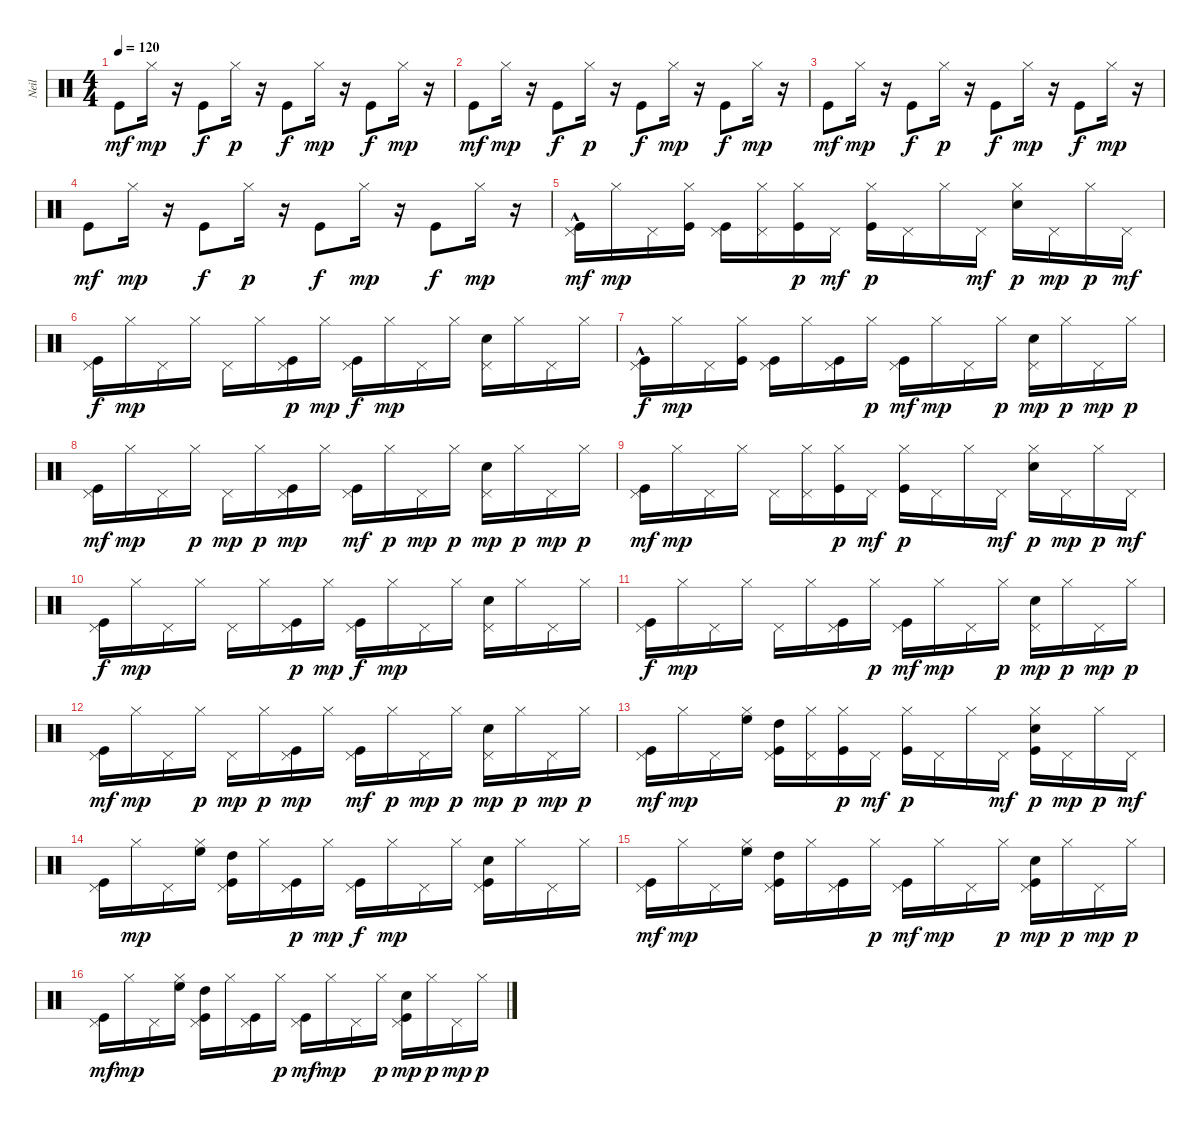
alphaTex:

\track ("Neil" "Neil") {instrument percussion}
\staff {score}
\articulation defaults
\ts (4 4)
\tempo 120
\clef neutral
\ks c "Kick (hit)".8{dy mf} "Hi-Hat (closed)".16{dy mp}
r.16 "Kick (hit)".8{dy f} "Hi-Hat (closed)".16{dy p} r.16 "Kick (hit)".8{dy f} "Hi-Hat (closed)".16{dy mp} r.16 "Kick (hit)".8{dy f} "Hi-Hat (closed)".16{dy mp} r.16 |
"Kick (hit)".8{dy mf} "Hi-Hat (closed)".16{dy mp} r.16 "Kick (hit)".8{dy f} "Hi-Hat (closed)".16{dy p} r.16 "Kick (hit)".8{dy f} "Hi-Hat (closed)".16{dy mp} r.16 "Kick (hit)".8{dy f} "Hi-Hat (closed)".16{dy mp} r.16 |
"Kick (hit)".8{dy mf} "Hi-Hat (closed)".16{dy mp} r.16 "Kick (hit)".8{dy f} "Hi-Hat (closed)".16{dy p} r.16 "Kick (hit)".8{dy f} "Hi-Hat (closed)".16{dy mp} r.16 "Kick (hit)".8{dy f} "Hi-Hat (closed)".16{dy mp} r.16 |
"Kick (hit)".8{dy mf} "Hi-Hat (closed)".16{dy mp} r.16 "Kick (hit)".8{dy f} "Hi-Hat (closed)".16{dy p} r.16 "Kick (hit)".8{dy f} "Hi-Hat (closed)".16{dy mp volume 9} r.16 "Kick (hit)".8{dy f} "Hi-Hat (closed)".16{dy mp volume 9} r.16 |
("Pedal Hi-Hat (hit)" "Kick (hit)"{hac}).16{dy mf} "Hi-Hat (closed)".16{dy mp} "Pedal Hi-Hat (hit)".16 ("Kick (hit)" "Hi-Hat (closed)").16{volume 9} ("Kick (hit)" "Pedal Hi-Hat (hit)").16{volume 10} ("Hi-Hat (closed)" "Pedal Hi-Hat (hit)").16{volume 10} ("Kick (hit)" "Hi-Hat (closed)").16{dy p} "Pedal Hi-Hat (hit)".16{dy mf volume 10} ("Kick (hit)" "Hi-Hat (closed)").16{dy p volume 10} "Pedal Hi-Hat (hit)".16 "Hi-Hat (closed)".16 "Pedal Hi-Hat (hit)".16{dy mf} ("Electric Snare (hit)" "Hi-Hat (closed)").16{dy p} "Pedal Hi-Hat (hit)".16{dy mp} "Hi-Hat (closed)".16{dy p} "Pedal Hi-Hat (hit)".16{dy mf volume 10} |
("Kick (hit)" "Pedal Hi-Hat (hit)").16{dy f volume 10} "Hi-Hat (closed)".16{dy mp} "Pedal Hi-Hat (hit)".16 "Hi-Hat (closed)".16 "Pedal Hi-Hat (hit)".16 "Hi-Hat (closed)".16 ("Kick (hit)" "Pedal Hi-Hat (hit)").16{dy p volume 10} "Hi-Hat (closed)".16{dy mp} ("Kick (hit)" "Pedal Hi-Hat (hit)").16{dy f} "Hi-Hat (closed)".16{dy mp volume 10} "Pedal Hi-Hat (hit)".16 "Hi-Hat (closed)".16 ("Electric Snare (hit)" "Pedal Hi-Hat (hit)").16 "Hi-Hat (closed)".16 "Pedal Hi-Hat (hit)".16 "Hi-Hat (closed)".16 |
("Pedal Hi-Hat (hit)" "Kick (hit)"{hac}).16{dy f} "Hi-Hat (closed)".16{dy mp} "Pedal Hi-Hat (hit)".16 ("Kick (hit)" "Hi-Hat (closed)").16 ("Kick (hit)" "Pedal Hi-Hat (hit)").16 "Hi-Hat (closed)".16 ("Kick (hit)" "Pedal Hi-Hat (hit)").16 "Hi-Hat (closed)".16{dy p} ("Kick (hit)" "Pedal Hi-Hat (hit)").16{dy mf} "Hi-Hat (closed)".16{dy mp} "Pedal Hi-Hat (hit)".16 "Hi-Hat (closed)".16{dy p} ("Electric Snare (hit)" "Pedal Hi-Hat (hit)").16{dy mp} "Hi-Hat (closed)".16{dy p volume 10} "Pedal Hi-Hat (hit)".16{dy mp} "Hi-Hat (closed)".16{dy p} |
("Kick (hit)" "Pedal Hi-Hat (hit)").16{dy mf} "Hi-Hat (closed)".16{dy mp} "Pedal Hi-Hat (hit)".16 "Hi-Hat (closed)".16{dy p} "Pedal Hi-Hat (hit)".16{dy mp volume 10} "Hi-Hat (closed)".16{dy p} ("Kick (hit)" "Pedal Hi-Hat (hit)").16{dy mp} "Hi-Hat (closed)".16 ("Kick (hit)" "Pedal Hi-Hat (hit)").16{dy mf} "Hi-Hat (closed)".16{dy p} "Pedal Hi-Hat (hit)".16{dy mp} "Hi-Hat (closed)".16{dy p} ("Electric Snare (hit)" "Pedal Hi-Hat (hit)").16{dy mp} "Hi-Hat (closed)".16{dy p} "Pedal Hi-Hat (hit)".16{dy mp} "Hi-Hat (closed)".16{dy p} |
("Kick (hit)" "Pedal Hi-Hat (hit)").16{dy mf} "Hi-Hat (closed)".16{dy mp} "Pedal Hi-Hat (hit)".16 "Hi-Hat (closed)".16 "Pedal Hi-Hat (hit)".16 ("Hi-Hat (closed)" "Pedal Hi-Hat (hit)").16 ("Kick (hit)" "Hi-Hat (closed)").16{dy p} "Pedal Hi-Hat (hit)".16{dy mf} ("Kick (hit)" "Hi-Hat (closed)").16{dy p} "Pedal Hi-Hat (hit)".16 "Hi-Hat (closed)".16 "Pedal Hi-Hat (hit)".16{dy mf} ("Electric Snare (hit)" "Hi-Hat (closed)").16{dy p} "Pedal Hi-Hat (hit)".16{dy mp} "Hi-Hat (closed)".16{dy p} "Pedal Hi-Hat (hit)".16{dy mf} |
("Kick (hit)" "Pedal Hi-Hat (hit)").16{dy f} "Hi-Hat (closed)".16{dy mp} "Pedal Hi-Hat (hit)".16 "Hi-Hat (closed)".16 "Pedal Hi-Hat (hit)".16 "Hi-Hat (closed)".16 ("Kick (hit)" "Pedal Hi-Hat (hit)").16{dy p} "Hi-Hat (closed)".16{dy mp} ("Kick (hit)" "Pedal Hi-Hat (hit)").16{dy f} "Hi-Hat (closed)".16{dy mp} "Pedal Hi-Hat (hit)".16 "Hi-Hat (closed)".16 ("Electric Snare (hit)" "Pedal Hi-Hat (hit)").16 "Hi-Hat (closed)".16 "Pedal Hi-Hat (hit)".16 "Hi-Hat (closed)".16 |
("Kick (hit)" "Pedal Hi-Hat (hit)").16{dy f} "Hi-Hat (closed)".16{dy mp} "Pedal Hi-Hat (hit)".16 "Hi-Hat (closed)".16 "Pedal Hi-Hat (hit)".16 "Hi-Hat (closed)".16 ("Kick (hit)" "Pedal Hi-Hat (hit)").16 "Hi-Hat (closed)".16{dy p} ("Kick (hit)" "Pedal Hi-Hat (hit)").16{dy mf} "Hi-Hat (closed)".16{dy mp} "Pedal Hi-Hat (hit)".16 "Hi-Hat (closed)".16{dy p} ("Electric Snare (hit)" "Pedal Hi-Hat (hit)").16{dy mp} "Hi-Hat (closed)".16{dy p} "Pedal Hi-Hat (hit)".16{dy mp} "Hi-Hat (closed)".16{dy p} |
("Kick (hit)" "Pedal Hi-Hat (hit)").16{dy mf} "Hi-Hat (closed)".16{dy mp} "Pedal Hi-Hat (hit)".16 "Hi-Hat (closed)".16{dy p} "Pedal Hi-Hat (hit)".16{dy mp} "Hi-Hat (closed)".16{dy p} ("Kick (hit)" "Pedal Hi-Hat (hit)").16{dy mp} "Hi-Hat (closed)".16 ("Kick (hit)" "Pedal Hi-Hat (hit)").16{dy mf} "Hi-Hat (closed)".16{dy p volume 10} "Pedal Hi-Hat (hit)".16{dy mp volume 10} "Hi-Hat (closed)".16{dy p} ("Electric Snare (hit)" "Pedal Hi-Hat (hit)").16{dy mp volume 10} "Hi-Hat (closed)".16{dy p volume 11} "Pedal Hi-Hat (hit)".16{dy mp volume 11} "Hi-Hat (closed)".16{dy p volume 11} |
("Kick (hit)" "Pedal Hi-Hat (hit)").16{dy mf volume 11} "Hi-Hat (closed)".16{dy mp volume 11} "Pedal Hi-Hat (hit)".16 ("High Floor Tom (hit)" "Hi-Hat (closed)").16 ("Kick (hit)" "High Tom (hit)" "Pedal Hi-Hat (hit)").16 ("Hi-Hat (closed)" "Pedal Hi-Hat (hit)").16 ("Kick (hit)" "Hi-Hat (closed)").16{dy p} "Pedal Hi-Hat (hit)".16{dy mf volume 12} ("Kick (hit)" "Hi-Hat (closed)").16{dy p volume 12} "Pedal Hi-Hat (hit)".16{volume 12} "Hi-Hat (closed)".16 "Pedal Hi-Hat (hit)".16{dy mf} ("Electric Snare (hit)" "Kick (hit)" "Hi-Hat (closed)").16{dy p} "Pedal Hi-Hat (hit)".16{dy mp} "Hi-Hat (closed)".16{dy p} "Pedal Hi-Hat (hit)".16{dy mf} |
("Kick (hit)" "Pedal Hi-Hat (hit)").16 "Hi-Hat (closed)".16{dy mp} "Pedal Hi-Hat (hit)".16 ("High Floor Tom (hit)" "Hi-Hat (closed)").16 ("Kick (hit)" "High Tom (hit)" "Pedal Hi-Hat (hit)").16 "Hi-Hat (closed)".16 ("Kick (hit)" "Pedal Hi-Hat (hit)").16{dy p} "Hi-Hat (closed)".16{dy mp} ("Kick (hit)" "Pedal Hi-Hat (hit)").16{dy f} "Hi-Hat (closed)".16{dy mp} "Pedal Hi-Hat (hit)".16{volume 12} "Hi-Hat (closed)".16 ("Electric Snare (hit)" "Kick (hit)" "Pedal Hi-Hat (hit)").16 "Hi-Hat (closed)".16 "Pedal Hi-Hat (hit)".16 "Hi-Hat (closed)".16 |
("Kick (hit)" "Pedal Hi-Hat (hit)").16{dy mf} "Hi-Hat (closed)".16{dy mp} "Pedal Hi-Hat (hit)".16 ("High Floor Tom (hit)" "Hi-Hat (closed)").16 ("Kick (hit)" "High Tom (hit)" "Pedal Hi-Hat (hit)").16 "Hi-Hat (closed)".16 ("Kick (hit)" "Pedal Hi-Hat (hit)").16 "Hi-Hat (closed)".16{dy p} ("Kick (hit)" "Pedal Hi-Hat (hit)").16{dy mf volume 12} "Hi-Hat (closed)".16{dy mp volume 12} "Pedal Hi-Hat (hit)".16{volume 12} "Hi-Hat (closed)".16{dy p} ("Electric Snare (hit)" "Kick (hit)" "Pedal Hi-Hat (hit)").16{dy mp} "Hi-Hat (closed)".16{dy p volume 12} "Pedal Hi-Hat (hit)".16{dy mp} "Hi-Hat (closed)".16{dy p} |
("Kick (hit)" "Pedal Hi-Hat (hit)").16{dy mf} "Hi-Hat (closed)".16{dy mp} "Pedal Hi-Hat (hit)".16{volume 12} ("High Floor Tom (hit)" "Hi-Hat (closed)").16 ("Kick (hit)" "High Tom (hit)" "Pedal Hi-Hat (hit)").16{volume 12} "Hi-Hat (closed)".16 ("Kick (hit)" "Pedal Hi-Hat (hit)").16 "Hi-Hat (closed)".16{dy p} ("Kick (hit)" "Pedal Hi-Hat (hit)").16{dy mf} "Hi-Hat (closed)".16{dy mp} "Pedal Hi-Hat (hit)".16 "Hi-Hat (closed)".16{dy p} ("Kick (hit)" "Electric Snare (hit)" "Pedal Hi-Hat (hit)").16{dy mp} "Hi-Hat (closed)".16{dy p} "Pedal Hi-Hat (hit)".16{dy mp} "Hi-Hat (closed)".16{dy p}
